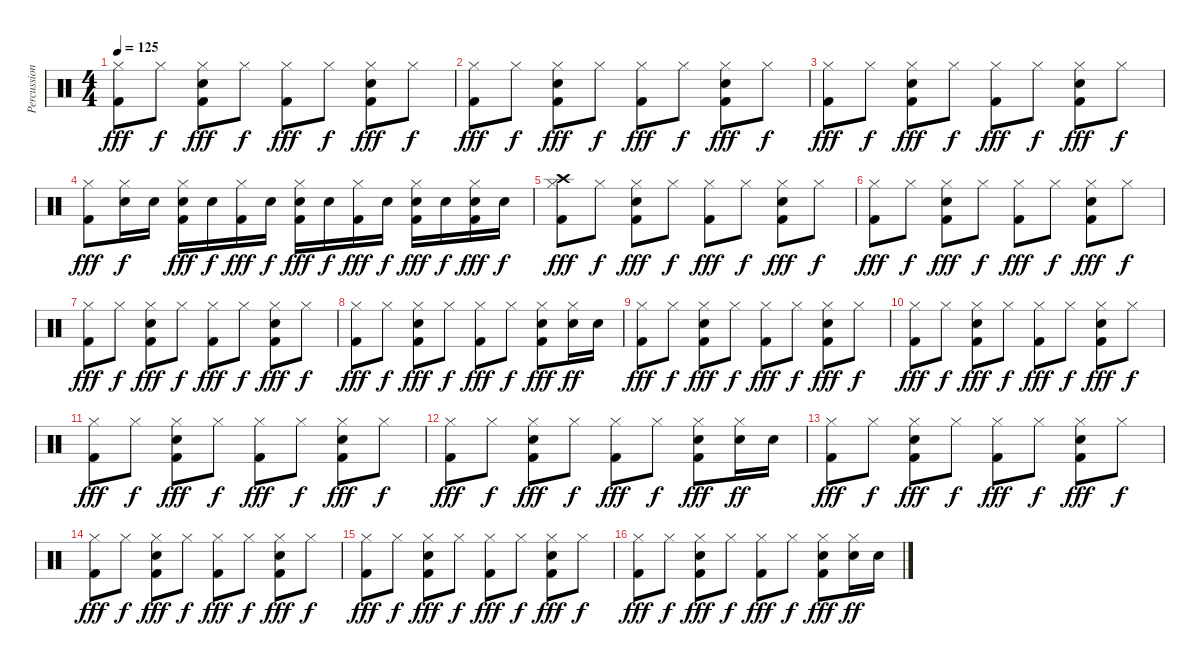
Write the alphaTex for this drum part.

\track ("Percussion" "Percussion") {instrument percussion}
\staff {score}
\articulation defaults
\ts (4 4)
\tempo 125
\clef neutral
\ks c
("Hi-Hat (closed)" "Kick (hit) 2").8{dy fff} "Hi-Hat (closed)".8{dy f} ("Hi-Hat (closed)" "Kick (hit) 2" "Snare (hit) 2").8{dy fff} "Hi-Hat (closed)".8{dy f} ("Hi-Hat (closed)" "Kick (hit) 2").8{dy fff} "Hi-Hat (closed)".8{dy f} ("Hi-Hat (closed)" "Kick (hit) 2" "Snare (hit) 2").8{dy fff} "Hi-Hat (closed)".8{dy f} |
("Hi-Hat (closed)" "Kick (hit) 2").8{dy fff} "Hi-Hat (closed)".8{dy f} ("Hi-Hat (closed)" "Kick (hit) 2" "Snare (hit) 2").8{dy fff} "Hi-Hat (closed)".8{dy f} ("Hi-Hat (closed)" "Kick (hit) 2").8{dy fff} "Hi-Hat (closed)".8{dy f} ("Hi-Hat (closed)" "Kick (hit) 2" "Snare (hit) 2").8{dy fff} "Hi-Hat (closed)".8{dy f} |
("Hi-Hat (closed)" "Kick (hit) 2").8{dy fff} "Hi-Hat (closed)".8{dy f} ("Hi-Hat (closed)" "Kick (hit) 2" "Snare (hit) 2").8{dy fff} "Hi-Hat (closed)".8{dy f} ("Hi-Hat (closed)" "Kick (hit) 2").8{dy fff} "Hi-Hat (closed)".8{dy f} ("Hi-Hat (closed)" "Kick (hit) 2" "Snare (hit) 2").8{dy fff} "Hi-Hat (closed)".8{dy f} |
("Hi-Hat (closed)" "Kick (hit) 2").8{dy fff} ("Hi-Hat (closed)" "Snare (hit) 2").16{dy f} "Snare (hit) 2".16 ("Hi-Hat (closed)" "Kick (hit) 2" "Snare (hit) 2").16{dy fff} "Snare (hit) 2".16{dy f} ("Hi-Hat (closed)" "Kick (hit) 2").16{dy fff} "Snare (hit) 2".16{dy f} ("Hi-Hat (closed)" "Kick (hit) 2" "Snare (hit) 2").16{dy fff} "Snare (hit) 2".16{dy f} ("Hi-Hat (closed)" "Kick (hit) 2").16{dy fff} "Snare (hit) 2".16{dy f} ("Hi-Hat (closed)" "Kick (hit) 2" "Snare (hit) 2").16{dy fff} "Snare (hit) 2".16{dy f} ("Hi-Hat (closed)" "Kick (hit) 2" "Snare (hit) 2").16{dy fff} "Snare (hit) 2".16{dy f} |
("Hi-Hat (closed)" "Kick (hit) 2" "Crash high (hit)").8{dy fff} "Hi-Hat (closed)".8{dy f} ("Hi-Hat (closed)" "Kick (hit) 2" "Snare (hit) 2").8{dy fff} "Hi-Hat (closed)".8{dy f} ("Hi-Hat (closed)" "Kick (hit) 2").8{dy fff} "Hi-Hat (closed)".8{dy f} ("Hi-Hat (closed)" "Kick (hit) 2" "Snare (hit) 2").8{dy fff} "Hi-Hat (closed)".8{dy f} |
("Hi-Hat (closed)" "Kick (hit) 2").8{dy fff} "Hi-Hat (closed)".8{dy f} ("Hi-Hat (closed)" "Kick (hit) 2" "Snare (hit) 2").8{dy fff} "Hi-Hat (closed)".8{dy f} ("Hi-Hat (closed)" "Kick (hit) 2").8{dy fff} "Hi-Hat (closed)".8{dy f} ("Hi-Hat (closed)" "Kick (hit) 2" "Snare (hit) 2").8{dy fff} "Hi-Hat (closed)".8{dy f} |
("Hi-Hat (closed)" "Kick (hit) 2").8{dy fff} "Hi-Hat (closed)".8{dy f} ("Hi-Hat (closed)" "Kick (hit) 2" "Snare (hit) 2").8{dy fff} "Hi-Hat (closed)".8{dy f} ("Hi-Hat (closed)" "Kick (hit) 2").8{dy fff} "Hi-Hat (closed)".8{dy f} ("Hi-Hat (closed)" "Kick (hit) 2" "Snare (hit) 2").8{dy fff} "Hi-Hat (closed)".8{dy f} |
("Hi-Hat (closed)" "Kick (hit) 2").8{dy fff} "Hi-Hat (closed)".8{dy f} ("Hi-Hat (closed)" "Kick (hit) 2" "Snare (hit) 2").8{dy fff} "Hi-Hat (closed)".8{dy f} ("Hi-Hat (closed)" "Kick (hit) 2").8{dy fff} "Hi-Hat (closed)".8{dy f} ("Hi-Hat (closed)" "Kick (hit) 2" "Snare (hit) 2").8{dy fff} ("Hi-Hat (closed)" "Snare (hit) 2").16{dy ff} "Snare (hit) 2".16 |
("Hi-Hat (closed)" "Kick (hit) 2").8{dy fff} "Hi-Hat (closed)".8{dy f} ("Hi-Hat (closed)" "Kick (hit) 2" "Snare (hit) 2").8{dy fff} "Hi-Hat (closed)".8{dy f} ("Hi-Hat (closed)" "Kick (hit) 2").8{dy fff} "Hi-Hat (closed)".8{dy f} ("Hi-Hat (closed)" "Kick (hit) 2" "Snare (hit) 2").8{dy fff} "Hi-Hat (closed)".8{dy f} |
("Hi-Hat (closed)" "Kick (hit) 2").8{dy fff} "Hi-Hat (closed)".8{dy f} ("Hi-Hat (closed)" "Kick (hit) 2" "Snare (hit) 2").8{dy fff} "Hi-Hat (closed)".8{dy f} ("Hi-Hat (closed)" "Kick (hit) 2").8{dy fff} "Hi-Hat (closed)".8{dy f} ("Hi-Hat (closed)" "Kick (hit) 2" "Snare (hit) 2").8{dy fff} "Hi-Hat (closed)".8{dy f} |
("Hi-Hat (closed)" "Kick (hit) 2").8{dy fff} "Hi-Hat (closed)".8{dy f} ("Hi-Hat (closed)" "Kick (hit) 2" "Snare (hit) 2").8{dy fff} "Hi-Hat (closed)".8{dy f} ("Hi-Hat (closed)" "Kick (hit) 2").8{dy fff} "Hi-Hat (closed)".8{dy f} ("Hi-Hat (closed)" "Kick (hit) 2" "Snare (hit) 2").8{dy fff} "Hi-Hat (closed)".8{dy f} |
("Hi-Hat (closed)" "Kick (hit) 2").8{dy fff} "Hi-Hat (closed)".8{dy f} ("Hi-Hat (closed)" "Kick (hit) 2" "Snare (hit) 2").8{dy fff} "Hi-Hat (closed)".8{dy f} ("Hi-Hat (closed)" "Kick (hit) 2").8{dy fff} "Hi-Hat (closed)".8{dy f} ("Hi-Hat (closed)" "Kick (hit) 2" "Snare (hit) 2").8{dy fff} ("Hi-Hat (closed)" "Snare (hit) 2").16{dy ff} "Snare (hit) 2".16 |
("Hi-Hat (closed)" "Kick (hit) 2").8{dy fff} "Hi-Hat (closed)".8{dy f} ("Hi-Hat (closed)" "Kick (hit) 2" "Snare (hit) 2").8{dy fff} "Hi-Hat (closed)".8{dy f} ("Hi-Hat (closed)" "Kick (hit) 2").8{dy fff} "Hi-Hat (closed)".8{dy f} ("Hi-Hat (closed)" "Kick (hit) 2" "Snare (hit) 2").8{dy fff} "Hi-Hat (closed)".8{dy f} |
("Hi-Hat (closed)" "Kick (hit) 2").8{dy fff} "Hi-Hat (closed)".8{dy f} ("Hi-Hat (closed)" "Kick (hit) 2" "Snare (hit) 2").8{dy fff} "Hi-Hat (closed)".8{dy f} ("Hi-Hat (closed)" "Kick (hit) 2").8{dy fff} "Hi-Hat (closed)".8{dy f} ("Hi-Hat (closed)" "Kick (hit) 2" "Snare (hit) 2").8{dy fff} "Hi-Hat (closed)".8{dy f} |
("Hi-Hat (closed)" "Kick (hit) 2").8{dy fff} "Hi-Hat (closed)".8{dy f} ("Hi-Hat (closed)" "Kick (hit) 2" "Snare (hit) 2").8{dy fff} "Hi-Hat (closed)".8{dy f} ("Hi-Hat (closed)" "Kick (hit) 2").8{dy fff} "Hi-Hat (closed)".8{dy f} ("Hi-Hat (closed)" "Kick (hit) 2" "Snare (hit) 2").8{dy fff} "Hi-Hat (closed)".8{dy f} |
("Hi-Hat (closed)" "Kick (hit) 2").8{dy fff} "Hi-Hat (closed)".8{dy f} ("Hi-Hat (closed)" "Kick (hit) 2" "Snare (hit) 2").8{dy fff} "Hi-Hat (closed)".8{dy f} ("Hi-Hat (closed)" "Kick (hit) 2").8{dy fff} "Hi-Hat (closed)".8{dy f} ("Hi-Hat (closed)" "Kick (hit) 2" "Snare (hit) 2").8{dy fff} ("Hi-Hat (closed)" "Snare (hit) 2").16{dy ff} "Snare (hit) 2".16
